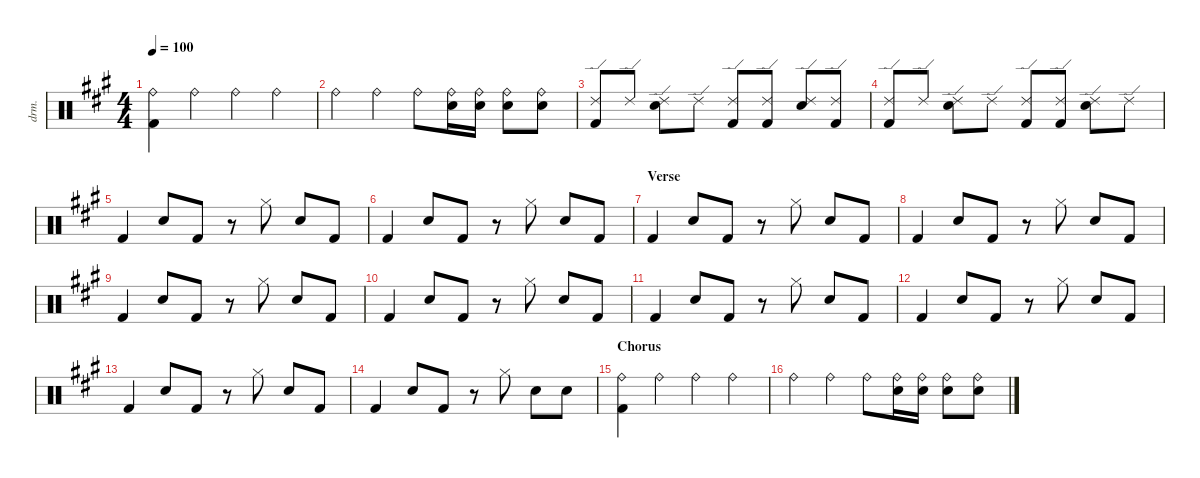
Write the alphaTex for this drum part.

\defaultSystemsLayout 4
\hideDynamics
\bracketExtendMode nobrackets
\otherSystemsTrackNameOrientation horizontal
\track ("Drums" "drm.") {instrument percussion}
\staff {score}
\articulation defaults
\ts (4 4)
\tempo 100
\clef neutral
\ks a
("Ride (bell)"{acc forcenatural} "Kick (hit) 2"{acc forcenatural}).4{dy f} "Ride (bell)"{acc forcenatural}.4 "Ride (bell)"{acc forcenatural}.4 "Ride (bell)"{acc forcenatural}.4 |
"Ride (bell)"{acc forcenatural}.4 "Ride (bell)"{acc forcenatural}.4 "Ride (bell)"{acc forcenatural}.8 ("Ride (bell)"{acc forcenatural} "Snare (hit) 2"{acc forcenatural}).16 ("Ride (bell)"{acc forcenatural} "Snare (hit) 2"{acc forcenatural}).16 ("Ride (bell)"{acc forcenatural} "Snare (hit) 2"{acc forcenatural}).8 ("Ride (bell)"{acc forcenatural} "Snare (hit) 2"{acc forcenatural}).8 |
("Ride (edge) 2"{acc forcenatural} "Kick (hit) 2"{acc forcenatural}).8 "Ride (edge) 2"{acc forcenatural}.8 ("Ride (edge) 2"{acc forcenatural} "Snare (hit) 2"{acc forcenatural}).8 "Ride (edge) 2"{acc forcenatural}.8 ("Ride (edge) 2"{acc forcenatural} "Kick (hit) 2"{acc forcenatural}).8 ("Ride (edge) 2"{acc forcenatural} "Kick (hit) 2"{acc forcenatural}).8 ("Ride (edge) 2"{acc forcenatural} "Snare (hit) 2"{acc forcenatural}).8 ("Ride (edge) 2"{acc forcenatural} "Kick (hit) 2"{acc forcenatural}).8 |
("Ride (edge) 2"{acc forcenatural} "Kick (hit) 2"{acc forcenatural}).8 "Ride (edge) 2"{acc forcenatural}.8 ("Ride (edge) 2"{acc forcenatural} "Snare (hit) 2"{acc forcenatural}).8 "Ride (edge) 2"{acc forcenatural}.8 ("Ride (edge) 2"{acc forcenatural} "Kick (hit) 2"{acc forcenatural}).8 ("Ride (edge) 2"{acc forcenatural} "Kick (hit) 2"{acc forcenatural}).8 ("Ride (edge) 2"{acc forcenatural} "Snare (hit) 2"{acc forcenatural}).8 "Ride (edge) 2"{acc forcenatural}.8 |
"Kick (hit) 2"{acc forcenatural}.4 "Snare (hit) 2"{acc forcenatural}.8 "Kick (hit) 2"{acc forcenatural}.8 r.8 "Hi-Hat (closed)"{acc forcenatural}.8 "Snare (hit) 2"{acc forcenatural}.8 "Kick (hit) 2"{acc forcenatural}.8 |
"Kick (hit) 2"{acc forcenatural}.4 "Snare (hit) 2"{acc forcenatural}.8 "Kick (hit) 2"{acc forcenatural}.8 r.8 "Hi-Hat (closed)"{acc forcenatural}.8 "Snare (hit) 2"{acc forcenatural}.8 "Kick (hit) 2"{acc forcenatural}.8 |
\section ("" "Verse")
"Kick (hit) 2"{acc forcenatural}.4 "Snare (hit) 2"{acc forcenatural}.8 "Kick (hit) 2"{acc forcenatural}.8 r.8 "Hi-Hat (closed)"{acc forcenatural}.8 "Snare (hit) 2"{acc forcenatural}.8 "Kick (hit) 2"{acc forcenatural}.8 |
"Kick (hit) 2"{acc forcenatural}.4 "Snare (hit) 2"{acc forcenatural}.8 "Kick (hit) 2"{acc forcenatural}.8 r.8 "Hi-Hat (closed)"{acc forcenatural}.8 "Snare (hit) 2"{acc forcenatural}.8 "Kick (hit) 2"{acc forcenatural}.8 |
"Kick (hit) 2"{acc forcenatural}.4 "Snare (hit) 2"{acc forcenatural}.8 "Kick (hit) 2"{acc forcenatural}.8 r.8 "Hi-Hat (closed)"{acc forcenatural}.8 "Snare (hit) 2"{acc forcenatural}.8 "Kick (hit) 2"{acc forcenatural}.8 |
"Kick (hit) 2"{acc forcenatural}.4 "Snare (hit) 2"{acc forcenatural}.8 "Kick (hit) 2"{acc forcenatural}.8 r.8 "Hi-Hat (closed)"{acc forcenatural}.8 "Snare (hit) 2"{acc forcenatural}.8 "Kick (hit) 2"{acc forcenatural}.8 |
"Kick (hit) 2"{acc forcenatural}.4 "Snare (hit) 2"{acc forcenatural}.8 "Kick (hit) 2"{acc forcenatural}.8 r.8 "Hi-Hat (closed)"{acc forcenatural}.8 "Snare (hit) 2"{acc forcenatural}.8 "Kick (hit) 2"{acc forcenatural}.8 |
"Kick (hit) 2"{acc forcenatural}.4 "Snare (hit) 2"{acc forcenatural}.8 "Kick (hit) 2"{acc forcenatural}.8 r.8 "Hi-Hat (closed)"{acc forcenatural}.8 "Snare (hit) 2"{acc forcenatural}.8 "Kick (hit) 2"{acc forcenatural}.8 |
"Kick (hit) 2"{acc forcenatural}.4 "Snare (hit) 2"{acc forcenatural}.8 "Kick (hit) 2"{acc forcenatural}.8 r.8 "Hi-Hat (closed)"{acc forcenatural}.8 "Snare (hit) 2"{acc forcenatural}.8 "Kick (hit) 2"{acc forcenatural}.8 |
"Kick (hit) 2"{acc forcenatural}.4 "Snare (hit) 2"{acc forcenatural}.8 "Kick (hit) 2"{acc forcenatural}.8 r.8 "Hi-Hat (closed)"{acc forcenatural}.8 "Snare (hit) 2"{acc forcenatural}.8 "Snare (hit) 2"{acc forcenatural}.8 |
\section ("" "Chorus")
("Ride (bell)"{acc forcenatural} "Kick (hit) 2"{acc forcenatural}).4 "Ride (bell)"{acc forcenatural}.4 "Ride (bell)"{acc forcenatural}.4 "Ride (bell)"{acc forcenatural}.4 |
"Ride (bell)"{acc forcenatural}.4 "Ride (bell)"{acc forcenatural}.4 "Ride (bell)"{acc forcenatural}.8 ("Ride (bell)"{acc forcenatural} "Snare (hit) 2"{acc forcenatural}).16 ("Ride (bell)"{acc forcenatural} "Snare (hit) 2"{acc forcenatural}).16 ("Ride (bell)"{acc forcenatural} "Snare (hit) 2"{acc forcenatural}).8 ("Ride (bell)"{acc forcenatural} "Snare (hit) 2"{acc forcenatural}).8
